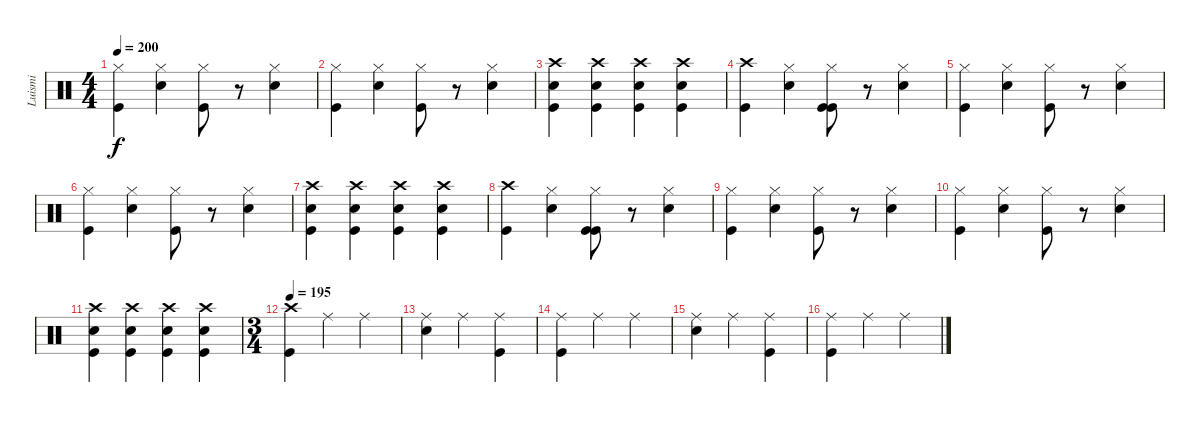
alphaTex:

\track ("Luismi" "Luismi") {instrument percussion}
\staff {score}
\articulation defaults
\ts (4 4)
\tempo 200
\clef neutral
\ks c
("Kick (hit)" "Hi-Hat (closed)").4{dy f} ("Snare (hit) 2" "Hi-Hat (closed)").4 ("Kick (hit)" "Hi-Hat (closed)").8 r.8 ("Snare (hit) 2" "Hi-Hat (closed)").4 |
("Kick (hit)" "Hi-Hat (closed)").4 ("Snare (hit) 2" "Hi-Hat (closed)").4 ("Kick (hit)" "Hi-Hat (closed)").8 r.8 ("Snare (hit) 2" "Hi-Hat (closed)").4 |
("Kick (hit)" "Snare (hit) 2" "Crash high (hit)").4 ("Snare (hit) 2" "Kick (hit)" "Crash high (hit)").4 ("Snare (hit) 2" "Kick (hit)" "Crash high (hit)").4 ("Snare (hit) 2" "Kick (hit)" "Crash high (hit)").4 |
("Crash high (hit)" "Kick (hit)").4 ("Snare (hit) 2" "Hi-Hat (closed)").4 ("Kick (hit)" "Kick (hit)" "Hi-Hat (closed)").8 r.8 ("Snare (hit) 2" "Hi-Hat (closed)").4 |
("Kick (hit)" "Hi-Hat (closed)").4 ("Snare (hit) 2" "Hi-Hat (closed)").4 ("Kick (hit)" "Hi-Hat (closed)").8 r.8 ("Snare (hit) 2" "Hi-Hat (closed)").4 |
("Kick (hit)" "Hi-Hat (closed)").4 ("Snare (hit) 2" "Hi-Hat (closed)").4 ("Kick (hit)" "Hi-Hat (closed)").8 r.8 ("Snare (hit) 2" "Hi-Hat (closed)").4 |
("Kick (hit)" "Snare (hit) 2" "Crash high (hit)").4 ("Snare (hit) 2" "Kick (hit)" "Crash high (hit)").4 ("Snare (hit) 2" "Kick (hit)" "Crash high (hit)").4 ("Snare (hit) 2" "Kick (hit)" "Crash high (hit)").4 |
("Crash high (hit)" "Kick (hit)").4 ("Snare (hit) 2" "Hi-Hat (closed)").4 ("Kick (hit)" "Kick (hit)" "Hi-Hat (closed)").8 r.8 ("Snare (hit) 2" "Hi-Hat (closed)").4 |
("Kick (hit)" "Hi-Hat (closed)").4 ("Snare (hit) 2" "Hi-Hat (closed)").4 ("Kick (hit)" "Hi-Hat (closed)").8 r.8 ("Snare (hit) 2" "Hi-Hat (closed)").4 |
("Kick (hit)" "Hi-Hat (closed)").4 ("Snare (hit) 2" "Hi-Hat (closed)").4 ("Kick (hit)" "Hi-Hat (closed)").8 r.8 ("Snare (hit) 2" "Hi-Hat (closed)").4 |
("Kick (hit)" "Snare (hit) 2" "Crash high (hit)").4 ("Snare (hit) 2" "Kick (hit)" "Crash high (hit)").4 ("Snare (hit) 2" "Kick (hit)" "Crash high (hit)").4 ("Snare (hit) 2" "Kick (hit)" "Crash high (hit)").4 |
\ts (3 4)
\tempo 195
("Kick (hit)" "Crash high (hit)").4 "Ride (middle)".4 "Ride (middle)".4 |
("Ride (middle)" "Snare (hit) 2").4 "Ride (middle)".4 ("Ride (middle)" "Kick (hit)").4 |
("Ride (middle)" "Kick (hit)").4 "Ride (middle)".4 "Ride (middle)".4 |
("Ride (middle)" "Snare (hit) 2").4 "Ride (middle)".4 ("Ride (middle)" "Kick (hit)").4 |
("Kick (hit)" "Ride (middle)").4 "Ride (middle)".4 "Ride (middle)".4
